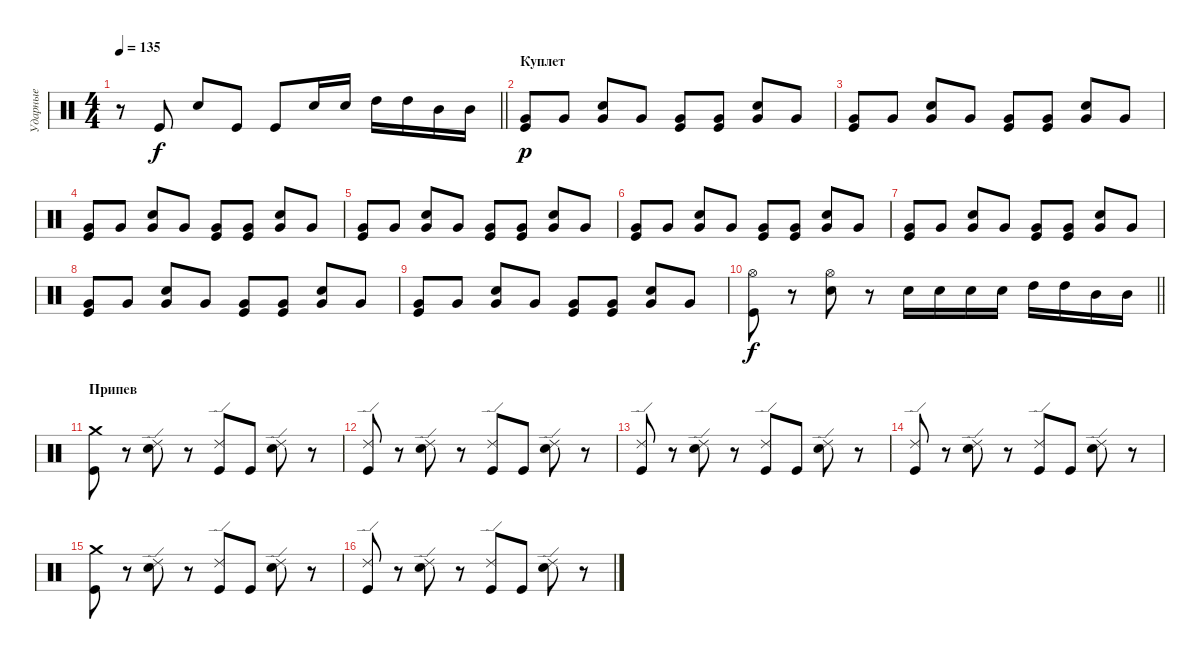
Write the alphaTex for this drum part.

\track ("Ударные" "Ударные") {instrument percussion}
\staff {score}
\articulation defaults
\ts (4 4)
\tempo 135
\clef neutral
\barLineRight lightlight
\ks c
r.8{dy f} "Kick (hit)".8 "Electric Snare (hit)".8 "Kick (hit)".8 "Kick (hit)".8 "Electric Snare (hit)".16 "Electric Snare (hit)".16 "High Tom (hit)".16 "High Tom (hit)".16 "Mid Tom (hit)".16 "Mid Tom (hit)".16 |
\section ("" "Куплет")
("Kick (hit)" "Very Low Tom (hit)").8{dy p} "Very Low Tom (hit)".8 ("Electric Snare (hit)" "Very Low Tom (hit)").8 "Very Low Tom (hit)".8 ("Kick (hit)" "Very Low Tom (hit)").8 ("Kick (hit)" "Very Low Tom (hit)").8 ("Electric Snare (hit)" "Very Low Tom (hit)").8 "Very Low Tom (hit)".8 |
("Kick (hit)" "Very Low Tom (hit)").8 "Very Low Tom (hit)".8 ("Electric Snare (hit)" "Very Low Tom (hit)").8 "Very Low Tom (hit)".8 ("Kick (hit)" "Very Low Tom (hit)").8 ("Kick (hit)" "Very Low Tom (hit)").8 ("Electric Snare (hit)" "Very Low Tom (hit)").8 "Very Low Tom (hit)".8 |
("Kick (hit)" "Very Low Tom (hit)").8 "Very Low Tom (hit)".8 ("Electric Snare (hit)" "Very Low Tom (hit)").8 "Very Low Tom (hit)".8 ("Kick (hit)" "Very Low Tom (hit)").8 ("Kick (hit)" "Very Low Tom (hit)").8 ("Electric Snare (hit)" "Very Low Tom (hit)").8 "Very Low Tom (hit)".8 |
("Kick (hit)" "Very Low Tom (hit)").8 "Very Low Tom (hit)".8 ("Electric Snare (hit)" "Very Low Tom (hit)").8 "Very Low Tom (hit)".8 ("Kick (hit)" "Very Low Tom (hit)").8 ("Kick (hit)" "Very Low Tom (hit)").8 ("Electric Snare (hit)" "Very Low Tom (hit)").8 "Very Low Tom (hit)".8 |
("Kick (hit)" "Very Low Tom (hit)").8 "Very Low Tom (hit)".8 ("Electric Snare (hit)" "Very Low Tom (hit)").8 "Very Low Tom (hit)".8 ("Kick (hit)" "Very Low Tom (hit)").8 ("Kick (hit)" "Very Low Tom (hit)").8 ("Electric Snare (hit)" "Very Low Tom (hit)").8 "Very Low Tom (hit)".8 |
("Kick (hit)" "Very Low Tom (hit)").8 "Very Low Tom (hit)".8 ("Electric Snare (hit)" "Very Low Tom (hit)").8 "Very Low Tom (hit)".8 ("Kick (hit)" "Very Low Tom (hit)").8 ("Kick (hit)" "Very Low Tom (hit)").8 ("Electric Snare (hit)" "Very Low Tom (hit)").8 "Very Low Tom (hit)".8 |
("Kick (hit)" "Very Low Tom (hit)").8 "Very Low Tom (hit)".8 ("Electric Snare (hit)" "Very Low Tom (hit)").8 "Very Low Tom (hit)".8 ("Kick (hit)" "Very Low Tom (hit)").8 ("Kick (hit)" "Very Low Tom (hit)").8 ("Electric Snare (hit)" "Very Low Tom (hit)").8 "Very Low Tom (hit)".8 |
("Kick (hit)" "Very Low Tom (hit)").8 "Very Low Tom (hit)".8 ("Electric Snare (hit)" "Very Low Tom (hit)").8 "Very Low Tom (hit)".8 ("Kick (hit)" "Very Low Tom (hit)").8 ("Kick (hit)" "Very Low Tom (hit)").8 ("Electric Snare (hit)" "Very Low Tom (hit)").8 "Very Low Tom (hit)".8 |
\barLineRight lightlight
("Hi-Hat (open)" "Kick (hit)").8{dy f} r.8 ("Hi-Hat (open)" "Electric Snare (hit)").8 r.8 "Electric Snare (hit)".16 "Electric Snare (hit)".16 "Electric Snare (hit)".16 "Electric Snare (hit)".16 "High Tom (hit)".16 "High Tom (hit)".16 "Mid Tom (hit)".16 "Mid Tom (hit)".16 |
\section ("" "Припев")
("Crash medium (hit)" "Kick (hit)").8 r.8 ("Ride (edge) 2" "Electric Snare (hit)").8 r.8 ("Ride (edge) 2" "Kick (hit)").8 "Kick (hit)".8 ("Ride (edge) 2" "Electric Snare (hit)").8 r.8 |
("Ride (edge) 2" "Kick (hit)").8 r.8 ("Ride (edge) 2" "Electric Snare (hit)").8 r.8 ("Ride (edge) 2" "Kick (hit)").8 "Kick (hit)".8 ("Ride (edge) 2" "Electric Snare (hit)").8 r.8 |
("Ride (edge) 2" "Kick (hit)").8 r.8 ("Ride (edge) 2" "Electric Snare (hit)").8 r.8 ("Ride (edge) 2" "Kick (hit)").8 "Kick (hit)".8 ("Ride (edge) 2" "Electric Snare (hit)").8 r.8 |
("Ride (edge) 2" "Kick (hit)").8 r.8 ("Ride (edge) 2" "Electric Snare (hit)").8 r.8 ("Ride (edge) 2" "Kick (hit)").8 "Kick (hit)".8 ("Ride (edge) 2" "Electric Snare (hit)").8 r.8 |
("Crash medium (hit)" "Kick (hit)").8 r.8 ("Ride (edge) 2" "Electric Snare (hit)").8 r.8 ("Ride (edge) 2" "Kick (hit)").8 "Kick (hit)".8 ("Ride (edge) 2" "Electric Snare (hit)").8 r.8 |
("Ride (edge) 2" "Kick (hit)").8 r.8 ("Ride (edge) 2" "Electric Snare (hit)").8 r.8 ("Ride (edge) 2" "Kick (hit)").8 "Kick (hit)".8 ("Ride (edge) 2" "Electric Snare (hit)").8 r.8
